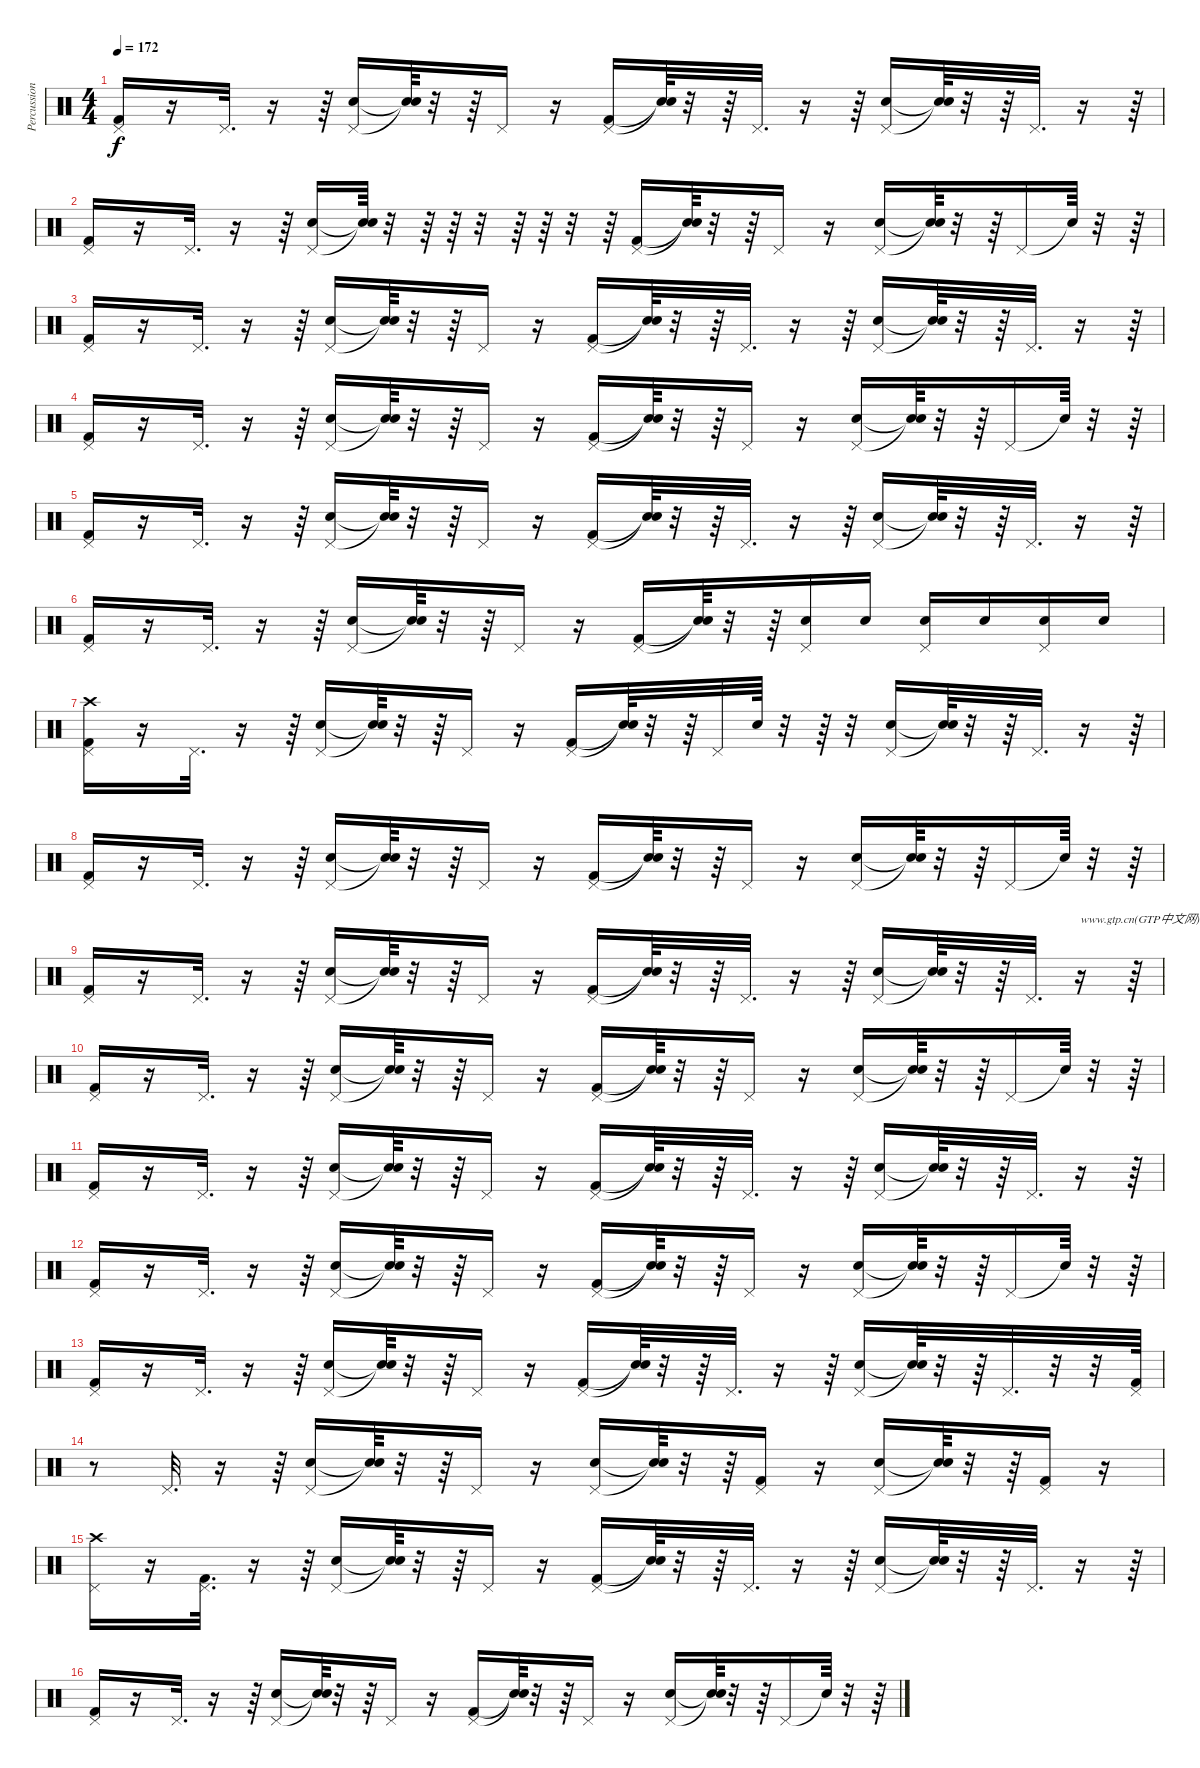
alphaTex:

\track ("Percussions" "Percussion") {instrument percussion}
\staff {score}
\articulation defaults
\ts (4 4)
\tempo 172
\clef neutral
\ks c
("Pedal Hi-Hat (hit)" "Kick (hit) 2").16{dy f} r.16 "Pedal Hi-Hat (hit)".32{d} r.16 r.64 ("Pedal Hi-Hat (hit)" "Snare (hit) 2").16 ("Snare (hit)"{t} "Snare (hit)"{t}).64 r.32 r.64 "Pedal Hi-Hat (hit)".16 r.16 ("Pedal Hi-Hat (hit)" "Kick (hit) 2").16 ("Snare (hit)"{t} "Snare (hit)"{t}).64 r.32 r.64 "Pedal Hi-Hat (hit)".32{d} r.16 r.64 ("Pedal Hi-Hat (hit)" "Snare (hit) 2").16 ("Snare (hit)"{t} "Snare (hit)"{t}).64 r.32 r.64 "Pedal Hi-Hat (hit)".32{d} r.16 r.64 |
("Pedal Hi-Hat (hit)" "Kick (hit) 2").16 r.16 "Pedal Hi-Hat (hit)".32{d} r.16 r.64 ("Pedal Hi-Hat (hit)" "Snare (hit) 2").16 ("Snare (hit)"{t} "Snare (hit)"{t}).64 r.32 r.64 r.64 r.32 r.64 r.64 r.32 r.64 ("Pedal Hi-Hat (hit)" "Kick (hit) 2").16 ("Snare (hit)"{t} "Snare (hit)"{t}).64 r.32 r.64 "Pedal Hi-Hat (hit)".16 r.16 ("Pedal Hi-Hat (hit)" "Snare (hit) 2").16 ("Snare (hit)"{t} "Snare (hit)"{t}).64 r.32 r.64 "Pedal Hi-Hat (hit)".16 "Snare (hit)"{t}.64 r.32 r.64 |
("Pedal Hi-Hat (hit)" "Kick (hit) 2").16 r.16 "Pedal Hi-Hat (hit)".32{d} r.16 r.64 ("Pedal Hi-Hat (hit)" "Snare (hit) 2").16 ("Snare (hit)"{t} "Snare (hit)"{t}).64 r.32 r.64 "Pedal Hi-Hat (hit)".16 r.16 ("Pedal Hi-Hat (hit)" "Kick (hit) 2").16 ("Snare (hit)"{t} "Snare (hit)"{t}).64 r.32 r.64 "Pedal Hi-Hat (hit)".32{d} r.16 r.64 ("Pedal Hi-Hat (hit)" "Snare (hit) 2").16 ("Snare (hit)"{t} "Snare (hit)"{t}).64 r.32 r.64 "Pedal Hi-Hat (hit)".32{d} r.16 r.64 |
("Pedal Hi-Hat (hit)" "Kick (hit) 2").16 r.16 "Pedal Hi-Hat (hit)".32{d} r.16 r.64 ("Pedal Hi-Hat (hit)" "Snare (hit) 2").16 ("Snare (hit)"{t} "Snare (hit)"{t}).64 r.32 r.64 "Pedal Hi-Hat (hit)".16 r.16 ("Pedal Hi-Hat (hit)" "Kick (hit) 2").16 ("Snare (hit)"{t} "Snare (hit)"{t}).64 r.32 r.64 "Pedal Hi-Hat (hit)".16 r.16 ("Pedal Hi-Hat (hit)" "Snare (hit) 2").16 ("Snare (hit)"{t} "Snare (hit)"{t}).64 r.32 r.64 "Pedal Hi-Hat (hit)".16 "Snare (hit)"{t}.64 r.32 r.64 |
("Pedal Hi-Hat (hit)" "Kick (hit) 2").16 r.16 "Pedal Hi-Hat (hit)".32{d} r.16 r.64 ("Pedal Hi-Hat (hit)" "Snare (hit) 2").16 ("Snare (hit)"{t} "Snare (hit)"{t}).64 r.32 r.64 "Pedal Hi-Hat (hit)".16 r.16 ("Pedal Hi-Hat (hit)" "Kick (hit) 2").16 ("Snare (hit)"{t} "Snare (hit)"{t}).64 r.32 r.64 "Pedal Hi-Hat (hit)".32{d} r.16 r.64 ("Pedal Hi-Hat (hit)" "Snare (hit) 2").16 ("Snare (hit)"{t} "Snare (hit)"{t}).64 r.32 r.64 "Pedal Hi-Hat (hit)".32{d} r.16 r.64 |
("Pedal Hi-Hat (hit)" "Kick (hit) 2").16 r.16 "Pedal Hi-Hat (hit)".32{d} r.16 r.64 ("Pedal Hi-Hat (hit)" "Snare (hit) 2").16 ("Snare (hit)"{t} "Snare (hit)"{t}).64 r.32 r.64 "Pedal Hi-Hat (hit)".16 r.16 ("Pedal Hi-Hat (hit)" "Kick (hit) 2").16 ("Snare (hit)"{t} "Snare (hit)"{t}).64 r.32 r.64 ("Pedal Hi-Hat (hit)" "Snare (hit) 2").16 "Snare (hit) 2".16 ("Snare (hit) 2" "Pedal Hi-Hat (hit)").16 "Snare (hit) 2".16 ("Snare (hit) 2" "Pedal Hi-Hat (hit)").16 "Snare (hit) 2".16 |
("Pedal Hi-Hat (hit)" "Crash high (hit)" "Kick (hit) 2").16 r.16 "Pedal Hi-Hat (hit)".32{d} r.16 r.64 ("Pedal Hi-Hat (hit)" "Snare (hit) 2").16 ("Snare (hit)"{t} "Snare (hit)"{t}).64 r.32 r.64 "Pedal Hi-Hat (hit)".16 r.16 ("Pedal Hi-Hat (hit)" "Kick (hit) 2").16 ("Snare (hit)"{t} "Snare (hit)"{t}).64 r.32 r.64 "Pedal Hi-Hat (hit)".32 "Snare (hit)".64 r.32 r.64 r.32 ("Pedal Hi-Hat (hit)" "Snare (hit) 2").16 ("Snare (hit)"{t} "Snare (hit)"{t}).64 r.32 r.64 "Pedal Hi-Hat (hit)".32{d} r.16 r.64 |
("Pedal Hi-Hat (hit)" "Kick (hit) 2").16 r.16 "Pedal Hi-Hat (hit)".32{d} r.16 r.64 ("Pedal Hi-Hat (hit)" "Snare (hit) 2").16 ("Snare (hit)"{t} "Snare (hit)"{t}).64 r.32 r.64 "Pedal Hi-Hat (hit)".16 r.16 ("Pedal Hi-Hat (hit)" "Kick (hit) 2").16 ("Snare (hit)"{t} "Snare (hit)"{t}).64 r.32 r.64 "Pedal Hi-Hat (hit)".16 r.16 ("Pedal Hi-Hat (hit)" "Snare (hit) 2").16 ("Snare (hit)"{t} "Snare (hit)"{t}).64 r.32 r.64 "Pedal Hi-Hat (hit)".16 "Snare (hit)"{t}.64 r.32 r.64 |
("Pedal Hi-Hat (hit)" "Kick (hit) 2").16 r.16 "Pedal Hi-Hat (hit)".32{d} r.16 r.64 ("Pedal Hi-Hat (hit)" "Snare (hit) 2").16 ("Snare (hit)"{t} "Snare (hit)"{t}).64 r.32 r.64 "Pedal Hi-Hat (hit)".16 r.16 ("Pedal Hi-Hat (hit)" "Kick (hit) 2").16 ("Snare (hit)"{t} "Snare (hit)"{t}).64 r.32 r.64 "Pedal Hi-Hat (hit)".32{d} r.16 r.64 ("Pedal Hi-Hat (hit)" "Snare (hit) 2").16 ("Snare (hit)"{t} "Snare (hit)"{t}).64 r.32 r.64 "Pedal Hi-Hat (hit)".32{d} r.16{txt "www.gtp.cn(GTP中文网)您提供优秀的GTP"} r.64 |
("Pedal Hi-Hat (hit)" "Kick (hit) 2").16 r.16 "Pedal Hi-Hat (hit)".32{d} r.16 r.64 ("Pedal Hi-Hat (hit)" "Snare (hit) 2").16 ("Snare (hit)"{t} "Snare (hit)"{t}).64 r.32 r.64 "Pedal Hi-Hat (hit)".16 r.16 ("Pedal Hi-Hat (hit)" "Kick (hit) 2").16 ("Snare (hit)"{t} "Snare (hit)"{t}).64 r.32 r.64 "Pedal Hi-Hat (hit)".16 r.16 ("Pedal Hi-Hat (hit)" "Snare (hit) 2").16 ("Snare (hit)"{t} "Snare (hit)"{t}).64 r.32 r.64 "Pedal Hi-Hat (hit)".16 "Snare (hit)"{t}.64 r.32 r.64 |
("Pedal Hi-Hat (hit)" "Kick (hit) 2").16 r.16 "Pedal Hi-Hat (hit)".32{d} r.16 r.64 ("Pedal Hi-Hat (hit)" "Snare (hit) 2").16 ("Snare (hit)"{t} "Snare (hit)"{t}).64 r.32 r.64 "Pedal Hi-Hat (hit)".16 r.16 ("Pedal Hi-Hat (hit)" "Kick (hit) 2").16 ("Snare (hit)"{t} "Snare (hit)"{t}).64 r.32 r.64 "Pedal Hi-Hat (hit)".32{d} r.16 r.64 ("Pedal Hi-Hat (hit)" "Snare (hit) 2").16 ("Snare (hit)"{t} "Snare (hit)"{t}).64 r.32 r.64 "Pedal Hi-Hat (hit)".32{d} r.16 r.64 |
("Pedal Hi-Hat (hit)" "Kick (hit) 2").16 r.16 "Pedal Hi-Hat (hit)".32{d} r.16 r.64 ("Pedal Hi-Hat (hit)" "Snare (hit) 2").16 ("Snare (hit)"{t} "Snare (hit)"{t}).64 r.32 r.64 "Pedal Hi-Hat (hit)".16 r.16 ("Pedal Hi-Hat (hit)" "Kick (hit) 2").16 ("Snare (hit)"{t} "Snare (hit)"{t}).64 r.32 r.64 "Pedal Hi-Hat (hit)".16 r.16 ("Pedal Hi-Hat (hit)" "Snare (hit) 2").16 ("Snare (hit)"{t} "Snare (hit)"{t}).64 r.32 r.64 "Pedal Hi-Hat (hit)".16 "Snare (hit)"{t}.64 r.32 r.64 |
("Pedal Hi-Hat (hit)" "Kick (hit) 2").16 r.16 "Pedal Hi-Hat (hit)".32{d} r.16 r.64 ("Pedal Hi-Hat (hit)" "Snare (hit) 2").16 ("Snare (hit)"{t} "Snare (hit)"{t}).64 r.32 r.64 "Pedal Hi-Hat (hit)".16 r.16 ("Pedal Hi-Hat (hit)" "Kick (hit) 2").16 ("Snare (hit)"{t} "Snare (hit)"{t}).64 r.32 r.64 "Pedal Hi-Hat (hit)".32{d} r.16 r.64 ("Pedal Hi-Hat (hit)" "Snare (hit) 2").16 ("Snare (hit)"{t} "Snare (hit)"{t}).64 r.32 r.64 "Pedal Hi-Hat (hit)".32{d} r.32 r.32 ("Pedal Hi-Hat (hit)" "Kick (hit) 2").64 |
r.8 "Pedal Hi-Hat (hit)".32{d} r.16 r.64 ("Pedal Hi-Hat (hit)" "Snare (hit) 2").16 ("Snare (hit)"{t} "Snare (hit)"{t}).64 r.32 r.64 "Pedal Hi-Hat (hit)".16 r.16 ("Pedal Hi-Hat (hit)" "Snare (hit) 2").16 ("Snare (hit)"{t} "Snare (hit)"{t}).64 r.32 r.64 ("Pedal Hi-Hat (hit)" "Kick (hit) 2").16 r.16 ("Pedal Hi-Hat (hit)" "Snare (hit) 2").16 ("Snare (hit)"{t} "Snare (hit)"{t}).64 r.32 r.64 ("Kick (hit) 2" "Pedal Hi-Hat (hit)").16 r.16 |
("Pedal Hi-Hat (hit)" "Crash high (hit)").16 r.16 ("Pedal Hi-Hat (hit)" "Kick (hit) 2").32{d} r.16 r.64 ("Pedal Hi-Hat (hit)" "Snare (hit) 2").16 ("Snare (hit)"{t} "Snare (hit)"{t}).64 r.32 r.64 "Pedal Hi-Hat (hit)".16 r.16 ("Pedal Hi-Hat (hit)" "Kick (hit) 2").16 ("Snare (hit)"{t} "Snare (hit)"{t}).64 r.32 r.64 "Pedal Hi-Hat (hit)".32{d} r.16 r.64 ("Pedal Hi-Hat (hit)" "Snare (hit) 2").16 ("Snare (hit)"{t} "Snare (hit)"{t}).64 r.32 r.64 "Pedal Hi-Hat (hit)".32{d} r.16 r.64 |
("Pedal Hi-Hat (hit)" "Kick (hit) 2").16 r.16 "Pedal Hi-Hat (hit)".32{d} r.16 r.64 ("Pedal Hi-Hat (hit)" "Snare (hit) 2").16 ("Snare (hit)"{t} "Snare (hit)"{t}).64 r.32 r.64 "Pedal Hi-Hat (hit)".16 r.16 ("Pedal Hi-Hat (hit)" "Kick (hit) 2").16 ("Snare (hit)"{t} "Snare (hit)"{t}).64 r.32 r.64 "Pedal Hi-Hat (hit)".16 r.16 ("Pedal Hi-Hat (hit)" "Snare (hit) 2").16 ("Snare (hit)"{t} "Snare (hit)"{t}).64 r.32 r.64 "Pedal Hi-Hat (hit)".16 "Snare (hit)"{t}.64 r.32 r.64
